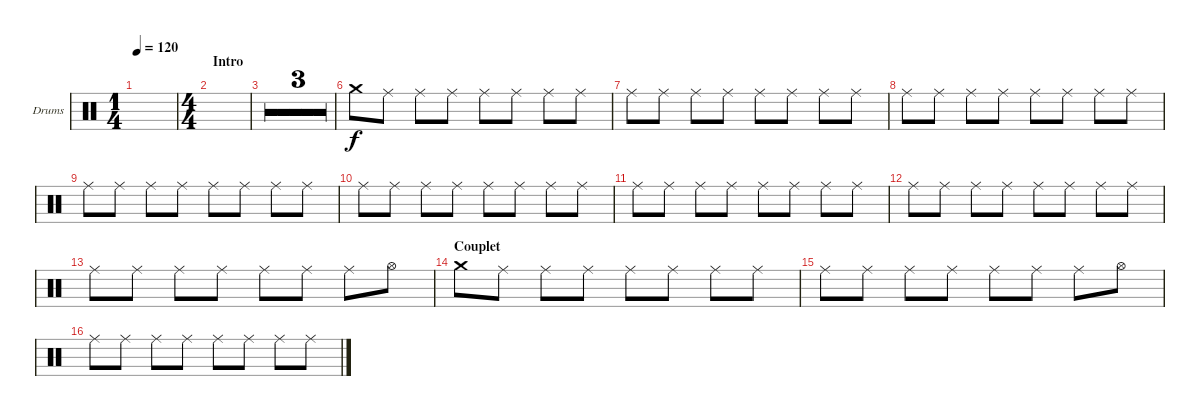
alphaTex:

\defaultSystemsLayout 4
\bracketExtendMode groupsimilarinstruments
\firstSystemTrackNameOrientation horizontal
\otherSystemsTrackNameOrientation horizontal
\track ("Drumkit" "Drums") {multiBarRest instrument percussion}
\staff {score}
\articulation defaults
\ts (1 4)
\tempo 120
\clef neutral
\ks c
|
\ts (4 4)
\section ("" "Intro")
|
|
|
|
"Crash medium (hit)".8 "Ride (middle)".8 "Ride (middle)".8 "Ride (middle)".8 "Ride (middle)".8 "Ride (middle)".8 "Ride (middle)".8 "Ride (middle)".8 |
"Ride (middle)".8 "Ride (middle)".8 "Ride (middle)".8 "Ride (middle)".8 "Ride (middle)".8 "Ride (middle)".8 "Ride (middle)".8 "Ride (middle)".8 |
"Ride (middle)".8 "Ride (middle)".8 "Ride (middle)".8 "Ride (middle)".8 "Ride (middle)".8 "Ride (middle)".8 "Ride (middle)".8 "Ride (middle)".8 |
"Ride (middle)".8 "Ride (middle)".8 "Ride (middle)".8 "Ride (middle)".8 "Ride (middle)".8 "Ride (middle)".8 "Ride (middle)".8 "Ride (middle)".8 |
"Ride (middle)".8 "Ride (middle)".8 "Ride (middle)".8 "Ride (middle)".8 "Ride (middle)".8 "Ride (middle)".8 "Ride (middle)".8 "Ride (middle)".8 |
"Ride (middle)".8 "Ride (middle)".8 "Ride (middle)".8 "Ride (middle)".8 "Ride (middle)".8 "Ride (middle)".8 "Ride (middle)".8 "Ride (middle)".8 |
"Ride (middle)".8 "Ride (middle)".8 "Ride (middle)".8 "Ride (middle)".8 "Ride (middle)".8 "Ride (middle)".8 "Ride (middle)".8 "Ride (middle)".8 |
"Ride (middle)".8 "Ride (middle)".8 "Ride (middle)".8 "Ride (middle)".8 "Ride (middle)".8 "Ride (middle)".8 "Ride (middle)".8 "Hi-Hat (open)".8 |
\section ("" "Couplet")
"Crash medium (hit)".8 "Ride (middle)".8 "Ride (middle)".8 "Ride (middle)".8 "Ride (middle)".8 "Ride (middle)".8 "Ride (middle)".8 "Ride (middle)".8 |
"Ride (middle)".8 "Ride (middle)".8 "Ride (middle)".8 "Ride (middle)".8 "Ride (middle)".8 "Ride (middle)".8 "Ride (middle)".8 "Hi-Hat (open)".8 |
"Ride (middle)".8 "Ride (middle)".8 "Ride (middle)".8 "Ride (middle)".8 "Ride (middle)".8 "Ride (middle)".8 "Ride (middle)".8 "Ride (middle)".8
